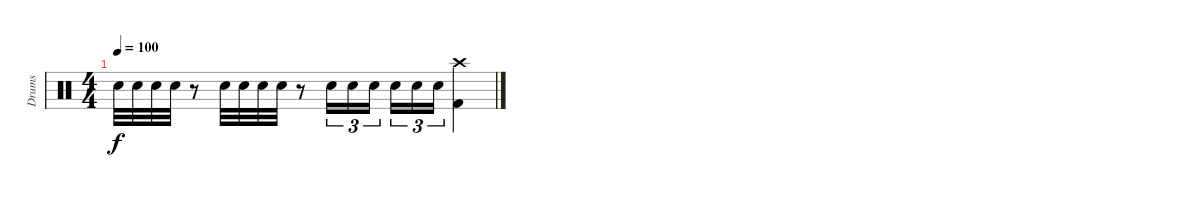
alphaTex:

\track ("Drums" "Drums") {instrument percussion}
\staff {score}
\articulation defaults
\ts (4 4)
\tempo 100
\clef neutral
\ks c "Snare (hit) 2".32{dy f} "Snare (hit) 2".32 "Snare (hit) 2".32 "Snare (hit) 2".32
r.8 "Snare (hit) 2".32 "Snare (hit) 2".32 "Snare (hit) 2".32 "Snare (hit) 2".32 r.8 "Snare (hit) 2".16{tu (3 2)} "Snare (hit) 2".16{tu (3 2)} "Snare (hit) 2".16{tu (3 2) beam splitsecondary} "Snare (hit) 2".16{tu (3 2)} "Snare (hit) 2".16{tu (3 2)} "Snare (hit) 2".16{tu (3 2)} ("Crash high (hit)" "Kick (hit) 2").4
